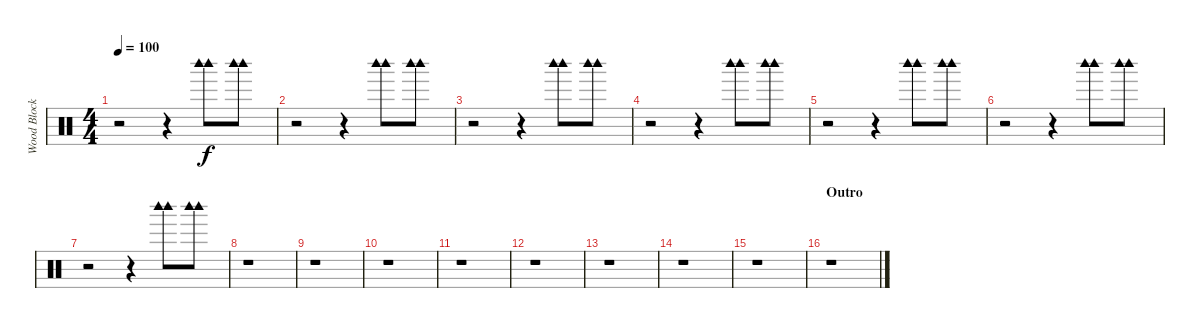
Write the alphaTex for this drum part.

\track ("Wood Block - Chad" "Wood Block") {instrument percussion}
\staff {score}
\articulation defaults
\ts (4 4)
\tempo 100
\clef neutral
\ks c
r.2{dy f} r.4 ("Woodblock high (hit)" "Woodblock high (hit)").8 ("Woodblock high (hit)" "Woodblock high (hit)").8 |
r.2 r.4 ("Woodblock high (hit)" "Woodblock high (hit)").8 ("Woodblock high (hit)" "Woodblock high (hit)").8 |
r.2 r.4 ("Woodblock high (hit)" "Woodblock high (hit)").8 ("Woodblock high (hit)" "Woodblock high (hit)").8 |
r.2 r.4 ("Woodblock high (hit)" "Woodblock high (hit)").8 ("Woodblock high (hit)" "Woodblock high (hit)").8 |
r.2 r.4 ("Woodblock high (hit)" "Woodblock high (hit)").8 ("Woodblock high (hit)" "Woodblock high (hit)").8 |
r.2 r.4 ("Woodblock high (hit)" "Woodblock high (hit)").8 ("Woodblock high (hit)" "Woodblock high (hit)").8 |
r.2 r.4 ("Woodblock high (hit)" "Woodblock high (hit)").8 ("Woodblock high (hit)" "Woodblock high (hit)").8 |
r.1 |
r.1 |
r.1 |
r.1 |
r.1 |
r.1 |
r.1 |
r.1 |
\section ("" "Outro")
r.1
